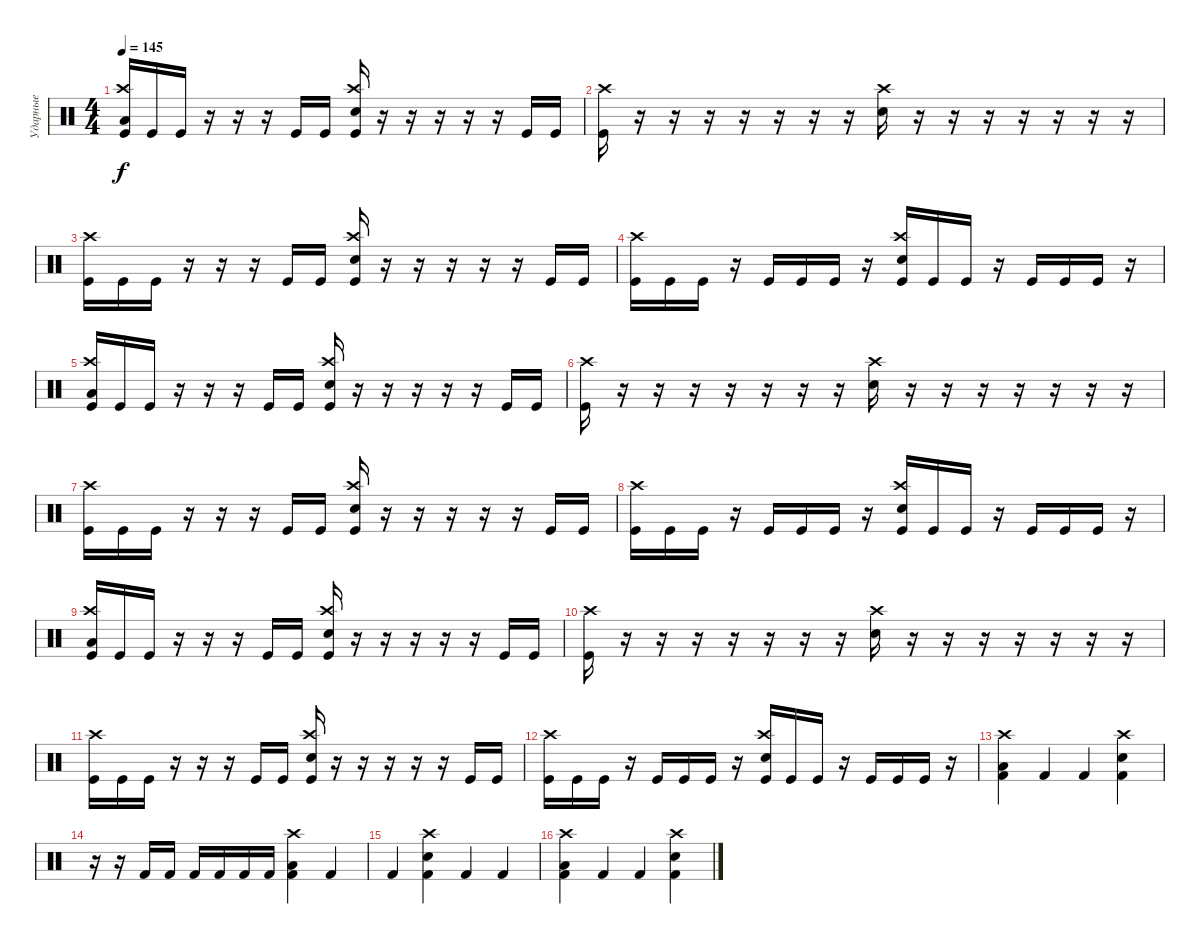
\track ("Ударные" "Ударные") {instrument percussion}
\staff {score}
\articulation defaults
\ts (4 4)
\tempo 145
\clef neutral
\ks c
("Kick (hit)" "Crash high (hit)" "Low Floor Tom (hit)").16{dy f} "Kick (hit)".16 "Kick (hit)".16 r.16 r.16 r.16 "Kick (hit)".16 "Kick (hit)".16 ("Kick (hit)" "Crash high (hit)" "Snare (hit) 2").16 r.16 r.16 r.16 r.16 r.16 "Kick (hit)".16 "Kick (hit)".16 |
("Kick (hit)" "Crash high (hit)").16 r.16 r.16 r.16 r.16 r.16 r.16 r.16 ("Crash high (hit)" "Snare (hit) 2").16 r.16 r.16 r.16 r.16 r.16 r.16 r.16 |
("Kick (hit)" "Crash high (hit)").16 "Kick (hit)".16 "Kick (hit)".16 r.16 r.16 r.16 "Kick (hit)".16 "Kick (hit)".16 ("Kick (hit)" "Crash high (hit)" "Snare (hit) 2").16 r.16 r.16 r.16 r.16 r.16 "Kick (hit)".16 "Kick (hit)".16 |
("Kick (hit)" "Crash high (hit)").16 "Kick (hit)".16 "Kick (hit)".16 r.16 "Kick (hit)".16 "Kick (hit)".16 "Kick (hit)".16 r.16 ("Kick (hit)" "Crash high (hit)" "Snare (hit) 2").16 "Kick (hit)".16 "Kick (hit)".16 r.16 "Kick (hit)".16 "Kick (hit)".16 "Kick (hit)".16 r.16 |
("Kick (hit)" "Crash high (hit)" "Low Floor Tom (hit)").16 "Kick (hit)".16 "Kick (hit)".16 r.16 r.16 r.16 "Kick (hit)".16 "Kick (hit)".16 ("Kick (hit)" "Crash high (hit)" "Snare (hit) 2").16 r.16 r.16 r.16 r.16 r.16 "Kick (hit)".16 "Kick (hit)".16 |
("Kick (hit)" "Crash high (hit)").16 r.16 r.16 r.16 r.16 r.16 r.16 r.16 ("Crash high (hit)" "Snare (hit) 2").16 r.16 r.16 r.16 r.16 r.16 r.16 r.16 |
("Kick (hit)" "Crash high (hit)").16 "Kick (hit)".16 "Kick (hit)".16 r.16 r.16 r.16 "Kick (hit)".16 "Kick (hit)".16 ("Kick (hit)" "Crash high (hit)" "Snare (hit) 2").16 r.16 r.16 r.16 r.16 r.16 "Kick (hit)".16 "Kick (hit)".16 |
("Kick (hit)" "Crash high (hit)").16 "Kick (hit)".16 "Kick (hit)".16 r.16 "Kick (hit)".16 "Kick (hit)".16 "Kick (hit)".16 r.16 ("Kick (hit)" "Crash high (hit)" "Snare (hit) 2").16 "Kick (hit)".16 "Kick (hit)".16 r.16 "Kick (hit)".16 "Kick (hit)".16 "Kick (hit)".16 r.16 |
("Kick (hit)" "Crash high (hit)" "Low Floor Tom (hit)").16 "Kick (hit)".16 "Kick (hit)".16 r.16 r.16 r.16 "Kick (hit)".16 "Kick (hit)".16 ("Kick (hit)" "Crash high (hit)" "Snare (hit) 2").16 r.16 r.16 r.16 r.16 r.16 "Kick (hit)".16 "Kick (hit)".16 |
("Kick (hit)" "Crash high (hit)").16 r.16 r.16 r.16 r.16 r.16 r.16 r.16 ("Crash high (hit)" "Snare (hit) 2").16 r.16 r.16 r.16 r.16 r.16 r.16 r.16 |
("Kick (hit)" "Crash high (hit)").16 "Kick (hit)".16 "Kick (hit)".16 r.16 r.16 r.16 "Kick (hit)".16 "Kick (hit)".16 ("Kick (hit)" "Crash high (hit)" "Snare (hit) 2").16 r.16 r.16 r.16 r.16 r.16 "Kick (hit)".16 "Kick (hit)".16 |
("Kick (hit)" "Crash high (hit)").16 "Kick (hit)".16 "Kick (hit)".16 r.16 "Kick (hit)".16 "Kick (hit)".16 "Kick (hit)".16 r.16 ("Kick (hit)" "Crash high (hit)" "Snare (hit) 2").16 "Kick (hit)".16 "Kick (hit)".16 r.16 "Kick (hit)".16 "Kick (hit)".16 "Kick (hit)".16 r.16 |
("Crash high (hit)" "Kick (hit) 2" "Low Floor Tom (hit)").4 "Kick (hit) 2".4 "Kick (hit) 2".4 ("Crash high (hit)" "Kick (hit) 2" "Snare (hit) 2").4 |
r.16 r.16 "Kick (hit) 2".16 "Kick (hit) 2".16 "Kick (hit) 2".16 "Kick (hit) 2".16 "Kick (hit) 2".16 "Kick (hit) 2".16 ("Crash high (hit)" "Kick (hit) 2" "Low Floor Tom (hit)").4 "Kick (hit) 2".4 |
"Kick (hit) 2".4 ("Crash high (hit)" "Kick (hit) 2" "Snare (hit) 2").4 "Kick (hit) 2".4 "Kick (hit) 2".4 |
("Crash high (hit)" "Kick (hit) 2" "Low Floor Tom (hit)").4 "Kick (hit) 2".4 "Kick (hit) 2".4 ("Crash high (hit)" "Kick (hit) 2" "Snare (hit) 2").4
